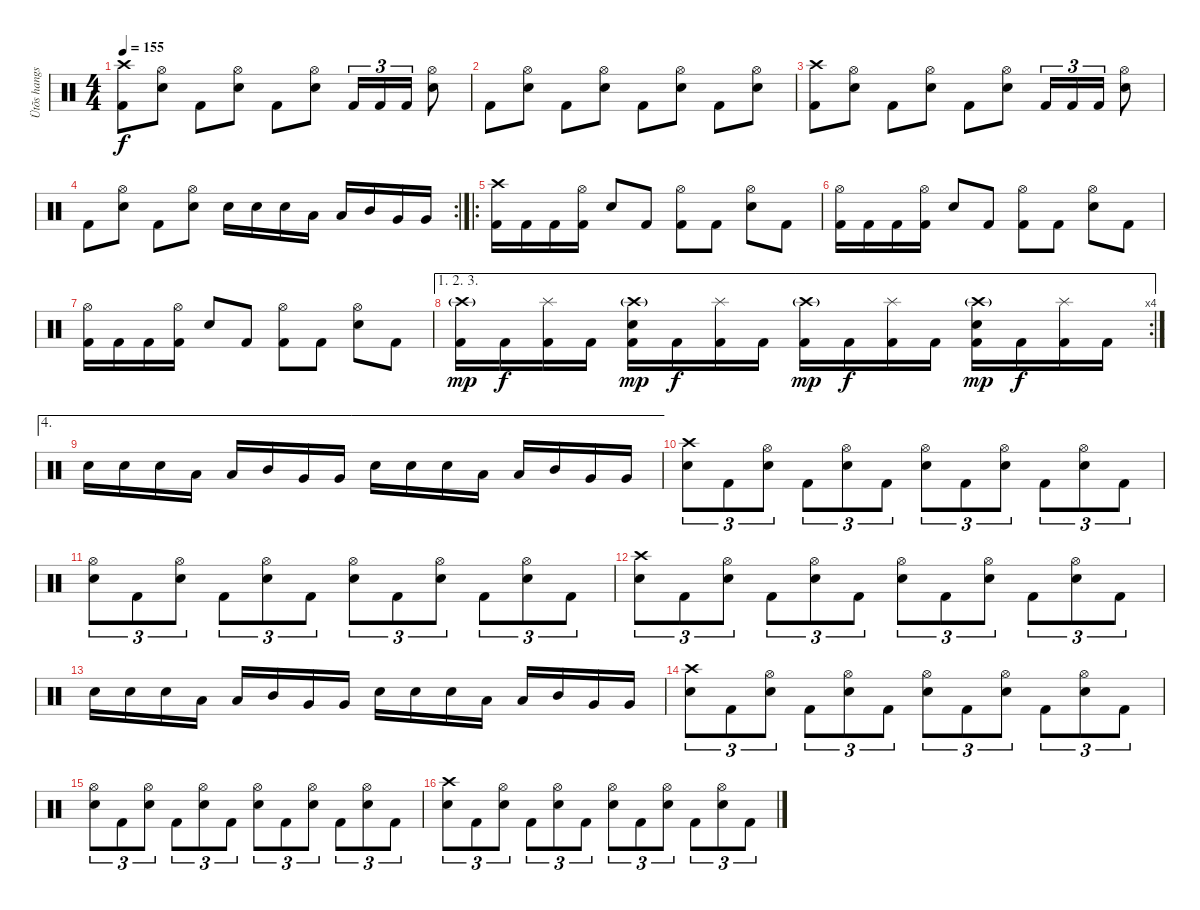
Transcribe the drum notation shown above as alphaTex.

\track ("Ütõs hangszer" "Ütõs hangs") {instrument percussion}
\staff {score}
\articulation defaults
\ts (4 4)
\tempo 155
\clef neutral
\ks c
("Crash high (hit)" "Kick (hit) 2").8{dy f} ("Hi-Hat (open)" "Snare (hit) 2").8 "Kick (hit) 2".8 ("Hi-Hat (open)" "Snare (hit) 2").8 "Kick (hit) 2".8 ("Hi-Hat (open)" "Snare (hit) 2").8 "Kick (hit) 2".16{tu (3 2)} "Kick (hit) 2".16{tu (3 2)} "Kick (hit) 2".16{tu (3 2)} ("Hi-Hat (open)" "Snare (hit) 2").8 |
"Kick (hit) 2".8 ("Hi-Hat (open)" "Snare (hit) 2").8 "Kick (hit) 2".8 ("Hi-Hat (open)" "Snare (hit) 2").8 "Kick (hit) 2".8 ("Hi-Hat (open)" "Snare (hit) 2").8 "Kick (hit) 2".8 ("Hi-Hat (open)" "Snare (hit) 2").8 |
("Crash high (hit)" "Kick (hit) 2").8 ("Hi-Hat (open)" "Snare (hit) 2").8 "Kick (hit) 2".8 ("Hi-Hat (open)" "Snare (hit) 2").8 "Kick (hit) 2".8 ("Hi-Hat (open)" "Snare (hit) 2").8 "Kick (hit) 2".16{tu (3 2)} "Kick (hit) 2".16{tu (3 2)} "Kick (hit) 2".16{tu (3 2)} ("Hi-Hat (open)" "Snare (hit) 2").8 |
\rc 2 "Kick (hit) 2".8
("Hi-Hat (open)" "Snare (hit) 2").8 "Kick (hit) 2".8 ("Hi-Hat (open)" "Snare (hit) 2").8 "Snare (hit) 2".16 "Snare (hit) 2".16 "Snare (hit) 2".16 "Low Tom (hit)".16 "Low Tom (hit)".16 "Mid Tom (hit)".16 "Very Low Tom (hit)".16 "Very Low Tom (hit)".16 |
\ro
("Crash high (hit)" "Kick (hit) 2").16 "Kick (hit) 2".16 "Kick (hit) 2".16 ("Hi-Hat (open)" "Kick (hit) 2").16 "Snare (hit) 2".8 "Kick (hit) 2".8 ("Hi-Hat (open)" "Kick (hit) 2").8 "Kick (hit) 2".8 ("Hi-Hat (open)" "Snare (hit) 2").8 "Kick (hit) 2".8 |
("Hi-Hat (open)" "Kick (hit) 2").16 "Kick (hit) 2".16 "Kick (hit) 2".16 ("Hi-Hat (open)" "Kick (hit) 2").16 "Snare (hit) 2".8 "Kick (hit) 2".8 ("Hi-Hat (open)" "Kick (hit) 2").8 "Kick (hit) 2".8 ("Hi-Hat (open)" "Snare (hit) 2").8 "Kick (hit) 2".8 |
("Hi-Hat (open)" "Kick (hit) 2").16 "Kick (hit) 2".16 "Kick (hit) 2".16 ("Hi-Hat (open)" "Kick (hit) 2").16 "Snare (hit) 2".8 "Kick (hit) 2".8 ("Hi-Hat (open)" "Kick (hit) 2").8 "Kick (hit) 2".8 ("Hi-Hat (open)" "Snare (hit) 2").8 "Kick (hit) 2".8 |
\ae (1 2 3)
\rc 4
("Crash high (hit)"{g} "Kick (hit) 2").16{dy mp} "Kick (hit) 2".16{dy f} ("Splash (hit)" "Kick (hit) 2").16 "Kick (hit) 2".16 ("Crash high (hit)"{g} "Snare (hit) 2" "Kick (hit) 2").16{dy mp} "Kick (hit) 2".16{dy f} ("Splash (hit)" "Kick (hit) 2").16 "Kick (hit) 2".16 ("Crash high (hit)"{g} "Kick (hit) 2").16{dy mp} "Kick (hit) 2".16{dy f} ("Splash (hit)" "Kick (hit) 2").16 "Kick (hit) 2".16 ("Crash high (hit)"{g} "Snare (hit) 2" "Kick (hit) 2").16{dy mp} "Kick (hit) 2".16{dy f} ("Splash (hit)" "Kick (hit) 2").16 "Kick (hit) 2".16 |
\ae 4 "Snare (hit) 2".16 "Snare (hit) 2".16 "Snare (hit) 2".16 "Low Tom (hit)".16 "Low Tom (hit)".16 "Mid Tom (hit)".16 "Very Low Tom (hit)".16 "Very Low Tom (hit)".16 "Snare (hit) 2".16 "Snare (hit) 2".16 "Snare (hit) 2".16 "Low Tom (hit)".16 "Low Tom (hit)".16 "Mid Tom (hit)".16 "Very Low Tom (hit)".16 "Very Low Tom (hit)".16
|
("Crash high (hit)" "Snare (hit) 2").8{tu (3 2)} "Kick (hit) 2".8{tu (3 2)} ("Hi-Hat (open)" "Snare (hit) 2").8{tu (3 2)} "Kick (hit) 2".8{tu (3 2)} ("Hi-Hat (open)" "Snare (hit) 2").8{tu (3 2)} "Kick (hit) 2".8{tu (3 2)} ("Hi-Hat (open)" "Snare (hit) 2").8{tu (3 2)} "Kick (hit) 2".8{tu (3 2)} ("Hi-Hat (open)" "Snare (hit) 2").8{tu (3 2)} "Kick (hit) 2".8{tu (3 2)} ("Hi-Hat (open)" "Snare (hit) 2").8{tu (3 2)} "Kick (hit) 2".8{tu (3 2)} |
("Hi-Hat (open)" "Snare (hit) 2").8{tu (3 2)} "Kick (hit) 2".8{tu (3 2)} ("Hi-Hat (open)" "Snare (hit) 2").8{tu (3 2)} "Kick (hit) 2".8{tu (3 2)} ("Hi-Hat (open)" "Snare (hit) 2").8{tu (3 2)} "Kick (hit) 2".8{tu (3 2)} ("Hi-Hat (open)" "Snare (hit) 2").8{tu (3 2)} "Kick (hit) 2".8{tu (3 2)} ("Hi-Hat (open)" "Snare (hit) 2").8{tu (3 2)} "Kick (hit) 2".8{tu (3 2)} ("Hi-Hat (open)" "Snare (hit) 2").8{tu (3 2)} "Kick (hit) 2".8{tu (3 2)} |
("Crash high (hit)" "Snare (hit) 2").8{tu (3 2)} "Kick (hit) 2".8{tu (3 2)} ("Hi-Hat (open)" "Snare (hit) 2").8{tu (3 2)} "Kick (hit) 2".8{tu (3 2)} ("Hi-Hat (open)" "Snare (hit) 2").8{tu (3 2)} "Kick (hit) 2".8{tu (3 2)} ("Hi-Hat (open)" "Snare (hit) 2").8{tu (3 2)} "Kick (hit) 2".8{tu (3 2)} ("Hi-Hat (open)" "Snare (hit) 2").8{tu (3 2)} "Kick (hit) 2".8{tu (3 2)} ("Hi-Hat (open)" "Snare (hit) 2").8{tu (3 2)} "Kick (hit) 2".8{tu (3 2)} |
"Snare (hit) 2".16 "Snare (hit) 2".16 "Snare (hit) 2".16 "Low Tom (hit)".16 "Low Tom (hit)".16 "Mid Tom (hit)".16 "Very Low Tom (hit)".16 "Very Low Tom (hit)".16 "Snare (hit) 2".16 "Snare (hit) 2".16 "Snare (hit) 2".16 "Low Tom (hit)".16 "Low Tom (hit)".16 "Mid Tom (hit)".16 "Very Low Tom (hit)".16 "Very Low Tom (hit)".16 |
("Crash high (hit)" "Snare (hit) 2").8{tu (3 2)} "Kick (hit) 2".8{tu (3 2)} ("Hi-Hat (open)" "Snare (hit) 2").8{tu (3 2)} "Kick (hit) 2".8{tu (3 2)} ("Hi-Hat (open)" "Snare (hit) 2").8{tu (3 2)} "Kick (hit) 2".8{tu (3 2)} ("Hi-Hat (open)" "Snare (hit) 2").8{tu (3 2)} "Kick (hit) 2".8{tu (3 2)} ("Hi-Hat (open)" "Snare (hit) 2").8{tu (3 2)} "Kick (hit) 2".8{tu (3 2)} ("Hi-Hat (open)" "Snare (hit) 2").8{tu (3 2)} "Kick (hit) 2".8{tu (3 2)} |
("Hi-Hat (open)" "Snare (hit) 2").8{tu (3 2)} "Kick (hit) 2".8{tu (3 2)} ("Hi-Hat (open)" "Snare (hit) 2").8{tu (3 2)} "Kick (hit) 2".8{tu (3 2)} ("Hi-Hat (open)" "Snare (hit) 2").8{tu (3 2)} "Kick (hit) 2".8{tu (3 2)} ("Hi-Hat (open)" "Snare (hit) 2").8{tu (3 2)} "Kick (hit) 2".8{tu (3 2)} ("Hi-Hat (open)" "Snare (hit) 2").8{tu (3 2)} "Kick (hit) 2".8{tu (3 2)} ("Hi-Hat (open)" "Snare (hit) 2").8{tu (3 2)} "Kick (hit) 2".8{tu (3 2)} |
("Crash high (hit)" "Snare (hit) 2").8{tu (3 2)} "Kick (hit) 2".8{tu (3 2)} ("Hi-Hat (open)" "Snare (hit) 2").8{tu (3 2)} "Kick (hit) 2".8{tu (3 2)} ("Hi-Hat (open)" "Snare (hit) 2").8{tu (3 2)} "Kick (hit) 2".8{tu (3 2)} ("Hi-Hat (open)" "Snare (hit) 2").8{tu (3 2)} "Kick (hit) 2".8{tu (3 2)} ("Hi-Hat (open)" "Snare (hit) 2").8{tu (3 2)} "Kick (hit) 2".8{tu (3 2)} ("Hi-Hat (open)" "Snare (hit) 2").8{tu (3 2)} "Kick (hit) 2".8{tu (3 2)}
